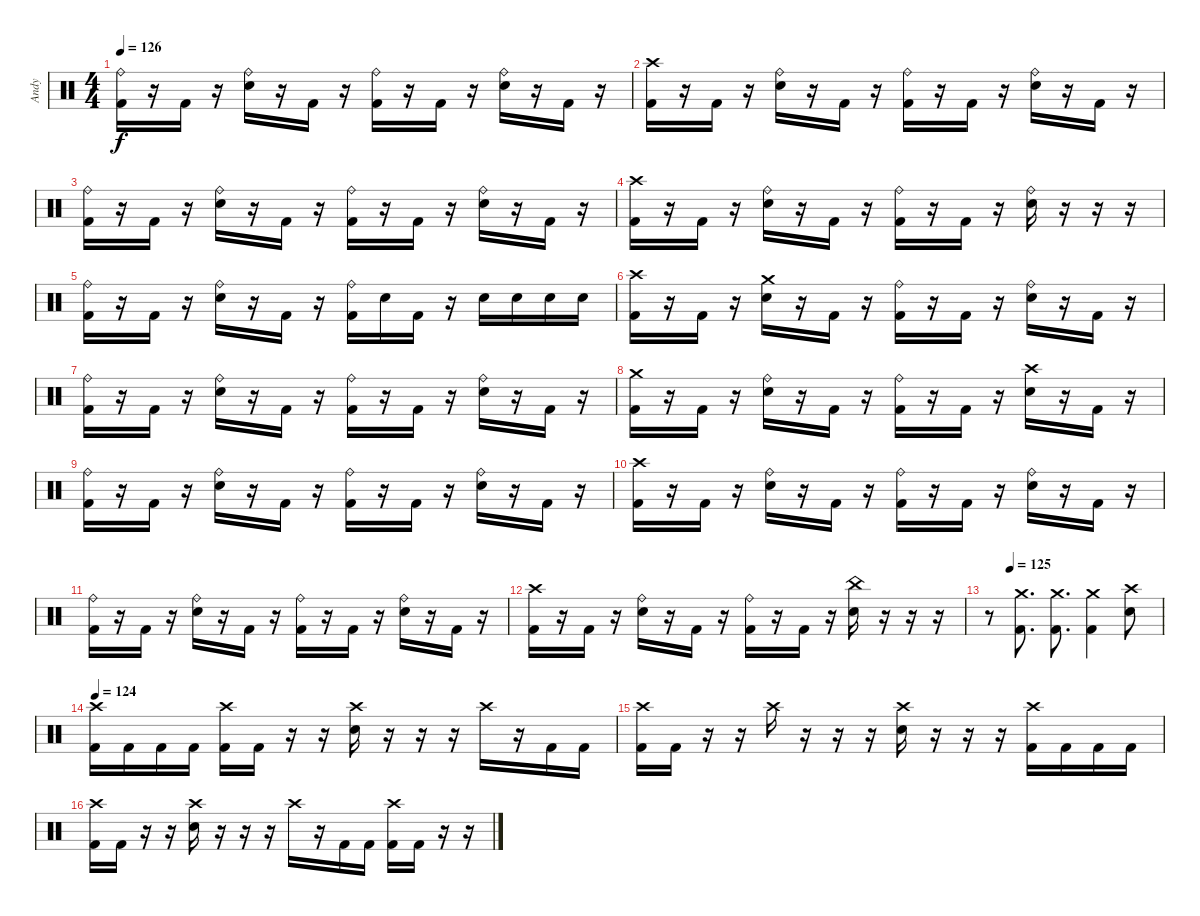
\track ("Andy" "Andy") {instrument percussion}
\staff {score}
\articulation defaults
\ts (4 4)
\tempo 126
\clef neutral
\ks c
("Ride (bell)" "Kick (hit) 2").16{dy f} r.16 "Kick (hit) 2".16 r.16 ("Ride (bell)" "Electric Snare (hit)").16 r.16 "Kick (hit) 2".16 r.16 ("Ride (bell)" "Kick (hit) 2").16 r.16 "Kick (hit) 2".16 r.16 ("Ride (bell)" "Electric Snare (hit)").16 r.16 "Kick (hit) 2".16 r.16 |
("Crash high (hit)" "Kick (hit) 2").16 r.16 "Kick (hit) 2".16 r.16 ("Ride (bell)" "Electric Snare (hit)").16 r.16 "Kick (hit) 2".16 r.16 ("Ride (bell)" "Kick (hit) 2").16 r.16 "Kick (hit) 2".16 r.16 ("Ride (bell)" "Electric Snare (hit)").16 r.16 "Kick (hit) 2".16 r.16 |
("Ride (bell)" "Kick (hit) 2").16 r.16 "Kick (hit) 2".16 r.16 ("Ride (bell)" "Electric Snare (hit)").16 r.16 "Kick (hit) 2".16 r.16 ("Ride (bell)" "Kick (hit) 2").16 r.16 "Kick (hit) 2".16 r.16 ("Ride (bell)" "Electric Snare (hit)").16 r.16 "Kick (hit) 2".16 r.16 |
("Crash high (hit)" "Kick (hit) 2").16 r.16 "Kick (hit) 2".16 r.16 ("Ride (bell)" "Electric Snare (hit)").16 r.16 "Kick (hit) 2".16 r.16 ("Ride (bell)" "Kick (hit) 2").16 r.16 "Kick (hit) 2".16 r.16 ("Ride (bell)" "Electric Snare (hit)").16 r.16 r.16 r.16 |
("Ride (bell)" "Kick (hit) 2").16 r.16 "Kick (hit) 2".16 r.16 ("Ride (bell)" "Electric Snare (hit)").16 r.16 "Kick (hit) 2".16 r.16 ("Ride (bell)" "Kick (hit) 2").16 "Electric Snare (hit)".16 "Kick (hit) 2".16 r.16 "Electric Snare (hit)".16 "Electric Snare (hit)".16 "Electric Snare (hit)".16 "Electric Snare (hit)".16 |
("Crash high (hit)" "Kick (hit) 2").16 r.16 "Kick (hit) 2".16 r.16 ("Crash medium (hit)" "Electric Snare (hit)").16 r.16 "Kick (hit) 2".16 r.16 ("Ride (bell)" "Kick (hit) 2").16 r.16 "Kick (hit) 2".16 r.16 ("Ride (bell)" "Electric Snare (hit)").16 r.16 "Kick (hit) 2".16 r.16 |
("Ride (bell)" "Kick (hit) 2").16 r.16 "Kick (hit) 2".16 r.16 ("Ride (bell)" "Electric Snare (hit)").16 r.16 "Kick (hit) 2".16 r.16 ("Ride (bell)" "Kick (hit) 2").16 r.16 "Kick (hit) 2".16 r.16 ("Ride (bell)" "Electric Snare (hit)").16 r.16 "Kick (hit) 2".16 r.16 |
("Crash medium (hit)" "Kick (hit) 2").16 r.16 "Kick (hit) 2".16 r.16 ("Ride (bell)" "Electric Snare (hit)").16 r.16 "Kick (hit) 2".16 r.16 ("Ride (bell)" "Kick (hit) 2").16 r.16 "Kick (hit) 2".16 r.16 ("Crash high (hit)" "Electric Snare (hit)").16 r.16 "Kick (hit) 2".16 r.16 |
("Ride (bell)" "Kick (hit) 2").16 r.16 "Kick (hit) 2".16 r.16 ("Ride (bell)" "Electric Snare (hit)").16 r.16 "Kick (hit) 2".16 r.16 ("Ride (bell)" "Kick (hit) 2").16 r.16 "Kick (hit) 2".16 r.16 ("Ride (bell)" "Electric Snare (hit)").16 r.16 "Kick (hit) 2".16 r.16 |
("Crash high (hit)" "Kick (hit) 2").16 r.16 "Kick (hit) 2".16 r.16 ("Ride (bell)" "Electric Snare (hit)").16 r.16 "Kick (hit) 2".16 r.16 ("Ride (bell)" "Kick (hit) 2").16 r.16 "Kick (hit) 2".16 r.16 ("Ride (bell)" "Electric Snare (hit)").16 r.16 "Kick (hit) 2".16 r.16 |
("Ride (bell)" "Kick (hit) 2").16 r.16 "Kick (hit) 2".16 r.16 ("Ride (bell)" "Electric Snare (hit)").16 r.16 "Kick (hit) 2".16 r.16 ("Ride (bell)" "Kick (hit) 2").16 r.16 "Kick (hit) 2".16 r.16 ("Ride (bell)" "Electric Snare (hit)").16 r.16 "Kick (hit) 2".16 r.16 |
("Crash high (hit)" "Kick (hit) 2").16 r.16 "Kick (hit) 2".16 r.16 ("Ride (bell)" "Electric Snare (hit)").16 r.16 "Kick (hit) 2".16 r.16 ("Ride (bell)" "Kick (hit) 2").16 r.16 "Kick (hit) 2".16 r.16 ("China (hit)" "Electric Snare (hit)").16 r.16 r.16 r.16 |
\tempo (125 0.125)
r.8 ("Crash medium (hit)" "Kick (hit) 2").8{d} ("Crash medium (hit)" "Kick (hit) 2").8{d} ("Crash medium (hit)" "Kick (hit) 2").4 ("Crash high (hit)" "Electric Snare (hit)").8 |
\tempo 124
("Crash high (hit)" "Kick (hit) 2").16 "Kick (hit) 2".16 "Kick (hit) 2".16 "Kick (hit) 2".16 ("Crash high (hit)" "Kick (hit) 2").16 "Kick (hit) 2".16 r.16 r.16 ("Crash high (hit)" "Electric Snare (hit)").16 r.16 r.16 r.16 "Crash high (hit)".16 r.16 "Kick (hit) 2".16 "Kick (hit) 2".16 |
("Crash high (hit)" "Kick (hit) 2").16 "Kick (hit) 2".16 r.16 r.16 "Crash high (hit)".16 r.16 r.16 r.16 ("Crash high (hit)" "Electric Snare (hit)").16 r.16 r.16 r.16 ("Crash high (hit)" "Kick (hit) 2").16 "Kick (hit) 2".16 "Kick (hit) 2".16 "Kick (hit) 2".16 |
("Crash high (hit)" "Kick (hit) 2").16 "Kick (hit) 2".16 r.16 r.16 ("Crash high (hit)" "Electric Snare (hit)").16 r.16 r.16 r.16 "Crash high (hit)".16 r.16 "Kick (hit) 2".16 "Kick (hit) 2".16 ("Crash high (hit)" "Kick (hit) 2").16 "Kick (hit) 2".16 r.16 r.16
